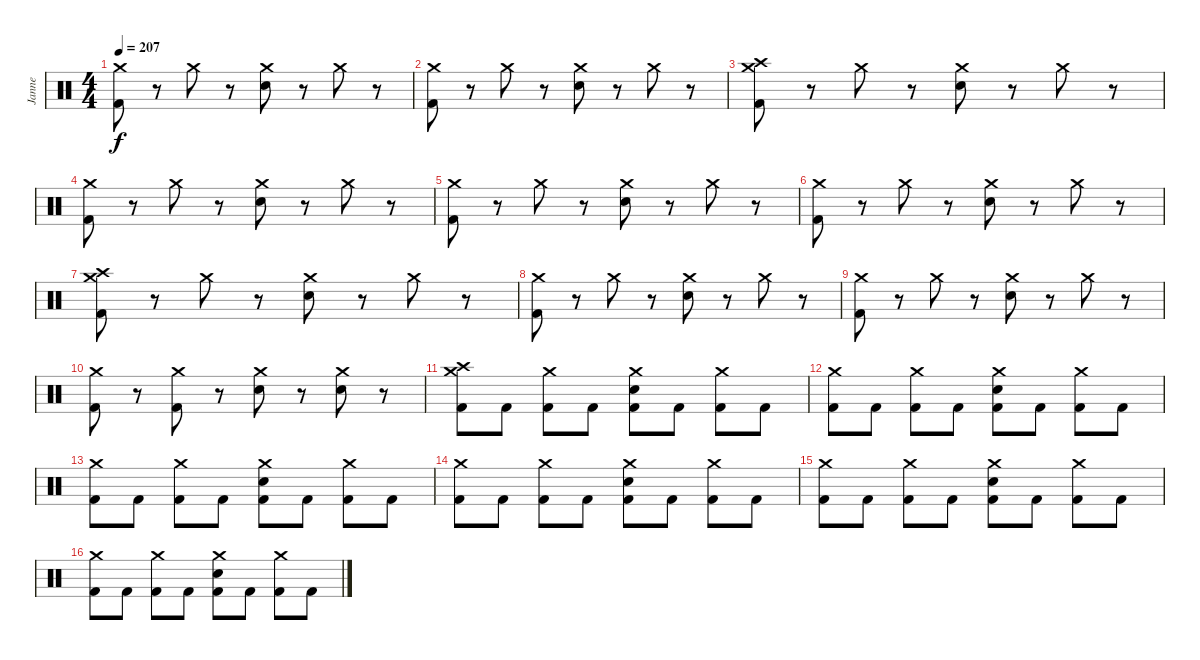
\track ("Janne" "Janne") {instrument percussion}
\staff {score}
\articulation defaults
\ts (4 4)
\tempo 207
\clef neutral
\ks c
("Crash medium (hit)" "Kick (hit) 2").8{dy f} r.8 "Crash medium (hit)".8 r.8 ("Crash medium (hit)" "Electric Snare (hit)").8 r.8 "Crash medium (hit)".8 r.8 |
("Crash medium (hit)" "Kick (hit) 2").8 r.8 "Crash medium (hit)".8 r.8 ("Crash medium (hit)" "Electric Snare (hit)").8 r.8 "Crash medium (hit)".8 r.8 |
("Crash high (hit)" "Crash medium (hit)" "Kick (hit) 2").8 r.8 "Crash medium (hit)".8 r.8 ("Crash medium (hit)" "Electric Snare (hit)").8 r.8 "Crash medium (hit)".8 r.8 |
("Crash medium (hit)" "Kick (hit) 2").8 r.8 "Crash medium (hit)".8 r.8 ("Crash medium (hit)" "Electric Snare (hit)").8 r.8 "Crash medium (hit)".8 r.8 |
("Crash medium (hit)" "Kick (hit) 2").8 r.8 "Crash medium (hit)".8 r.8 ("Crash medium (hit)" "Electric Snare (hit)").8 r.8 "Crash medium (hit)".8 r.8 |
("Crash medium (hit)" "Kick (hit) 2").8 r.8 "Crash medium (hit)".8 r.8 ("Crash medium (hit)" "Electric Snare (hit)").8 r.8 "Crash medium (hit)".8 r.8 |
("Crash high (hit)" "Crash medium (hit)" "Kick (hit) 2").8 r.8 "Crash medium (hit)".8 r.8 ("Crash medium (hit)" "Electric Snare (hit)").8 r.8 "Crash medium (hit)".8 r.8 |
("Crash medium (hit)" "Kick (hit) 2").8 r.8 "Crash medium (hit)".8 r.8 ("Crash medium (hit)" "Electric Snare (hit)").8 r.8 "Crash medium (hit)".8 r.8 |
("Crash medium (hit)" "Kick (hit) 2").8 r.8 "Crash medium (hit)".8 r.8 ("Crash medium (hit)" "Electric Snare (hit)").8 r.8 "Crash medium (hit)".8 r.8 |
("Crash medium (hit)" "Kick (hit) 2").8 r.8 ("Crash medium (hit)" "Kick (hit) 2").8 r.8 ("Crash medium (hit)" "Electric Snare (hit)").8 r.8 ("Crash medium (hit)" "Electric Snare (hit)").8 r.8 |
("Crash high (hit)" "Crash medium (hit)" "Kick (hit) 2").8 "Kick (hit) 2".8 ("Crash medium (hit)" "Kick (hit) 2").8 "Kick (hit) 2".8 ("Crash medium (hit)" "Electric Snare (hit)" "Kick (hit) 2").8 "Kick (hit) 2".8 ("Crash medium (hit)" "Kick (hit) 2").8 "Kick (hit) 2".8 |
("Crash medium (hit)" "Kick (hit) 2").8 "Kick (hit) 2".8 ("Crash medium (hit)" "Kick (hit) 2").8 "Kick (hit) 2".8 ("Crash medium (hit)" "Electric Snare (hit)" "Kick (hit) 2").8 "Kick (hit) 2".8 ("Crash medium (hit)" "Kick (hit) 2").8 "Kick (hit) 2".8 |
("Crash medium (hit)" "Kick (hit) 2").8 "Kick (hit) 2".8 ("Crash medium (hit)" "Kick (hit) 2").8 "Kick (hit) 2".8 ("Crash medium (hit)" "Electric Snare (hit)" "Kick (hit) 2").8 "Kick (hit) 2".8 ("Crash medium (hit)" "Kick (hit) 2").8 "Kick (hit) 2".8 |
("Crash medium (hit)" "Kick (hit) 2").8 "Kick (hit) 2".8 ("Crash medium (hit)" "Kick (hit) 2").8 "Kick (hit) 2".8 ("Crash medium (hit)" "Electric Snare (hit)" "Kick (hit) 2").8 "Kick (hit) 2".8 ("Crash medium (hit)" "Kick (hit) 2").8 "Kick (hit) 2".8 |
("Crash medium (hit)" "Kick (hit) 2").8 "Kick (hit) 2".8 ("Crash medium (hit)" "Kick (hit) 2").8 "Kick (hit) 2".8 ("Crash medium (hit)" "Electric Snare (hit)" "Kick (hit) 2").8 "Kick (hit) 2".8 ("Crash medium (hit)" "Kick (hit) 2").8 "Kick (hit) 2".8 |
("Crash medium (hit)" "Kick (hit) 2").8 "Kick (hit) 2".8 ("Crash medium (hit)" "Kick (hit) 2").8 "Kick (hit) 2".8 ("Crash medium (hit)" "Electric Snare (hit)" "Kick (hit) 2").8 "Kick (hit) 2".8 ("Crash medium (hit)" "Kick (hit) 2").8 "Kick (hit) 2".8
